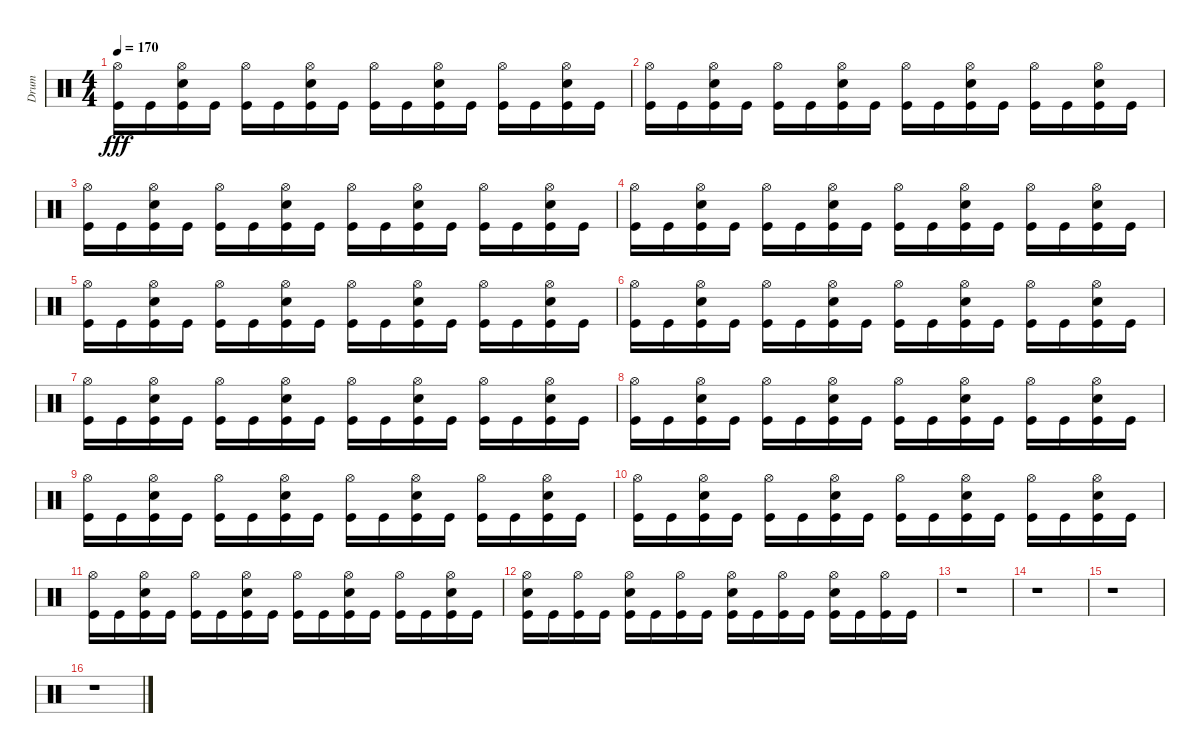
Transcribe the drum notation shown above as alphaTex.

\track ("Drum" "Drum") {instrument percussion}
\staff {score}
\articulation defaults
\ts (4 4)
\tempo 170
\clef neutral
\ks c
("Hi-Hat (open)" "Kick (hit)").16{dy fff} "Kick (hit)".16 ("Hi-Hat (open)" "Snare (hit) 2" "Kick (hit)").16 "Kick (hit)".16 ("Hi-Hat (open)" "Kick (hit)").16 "Kick (hit)".16 ("Hi-Hat (open)" "Snare (hit) 2" "Kick (hit)").16 "Kick (hit)".16 ("Hi-Hat (open)" "Kick (hit)").16 "Kick (hit)".16 ("Hi-Hat (open)" "Snare (hit) 2" "Kick (hit)").16 "Kick (hit)".16 ("Hi-Hat (open)" "Kick (hit)").16 "Kick (hit)".16 ("Hi-Hat (open)" "Snare (hit) 2" "Kick (hit)").16 "Kick (hit)".16 |
("Hi-Hat (open)" "Kick (hit)").16 "Kick (hit)".16 ("Hi-Hat (open)" "Snare (hit) 2" "Kick (hit)").16 "Kick (hit)".16 ("Hi-Hat (open)" "Kick (hit)").16 "Kick (hit)".16 ("Hi-Hat (open)" "Snare (hit) 2" "Kick (hit)").16 "Kick (hit)".16 ("Hi-Hat (open)" "Kick (hit)").16 "Kick (hit)".16 ("Hi-Hat (open)" "Snare (hit) 2" "Kick (hit)").16 "Kick (hit)".16 ("Hi-Hat (open)" "Kick (hit)").16 "Kick (hit)".16 ("Hi-Hat (open)" "Snare (hit) 2" "Kick (hit)").16 "Kick (hit)".16 |
("Hi-Hat (open)" "Kick (hit)").16 "Kick (hit)".16 ("Hi-Hat (open)" "Snare (hit) 2" "Kick (hit)").16 "Kick (hit)".16 ("Hi-Hat (open)" "Kick (hit)").16 "Kick (hit)".16 ("Hi-Hat (open)" "Snare (hit) 2" "Kick (hit)").16 "Kick (hit)".16 ("Hi-Hat (open)" "Kick (hit)").16 "Kick (hit)".16 ("Hi-Hat (open)" "Snare (hit) 2" "Kick (hit)").16 "Kick (hit)".16 ("Hi-Hat (open)" "Kick (hit)").16 "Kick (hit)".16 ("Hi-Hat (open)" "Snare (hit) 2" "Kick (hit)").16 "Kick (hit)".16 |
("Hi-Hat (open)" "Kick (hit)").16 "Kick (hit)".16 ("Hi-Hat (open)" "Snare (hit) 2" "Kick (hit)").16 "Kick (hit)".16 ("Hi-Hat (open)" "Kick (hit)").16 "Kick (hit)".16 ("Hi-Hat (open)" "Snare (hit) 2" "Kick (hit)").16 "Kick (hit)".16 ("Hi-Hat (open)" "Kick (hit)").16 "Kick (hit)".16 ("Hi-Hat (open)" "Snare (hit) 2" "Kick (hit)").16 "Kick (hit)".16 ("Hi-Hat (open)" "Kick (hit)").16 "Kick (hit)".16 ("Hi-Hat (open)" "Snare (hit) 2" "Kick (hit)").16 "Kick (hit)".16 |
("Hi-Hat (open)" "Kick (hit)").16 "Kick (hit)".16 ("Hi-Hat (open)" "Snare (hit) 2" "Kick (hit)").16 "Kick (hit)".16 ("Hi-Hat (open)" "Kick (hit)").16 "Kick (hit)".16 ("Hi-Hat (open)" "Snare (hit) 2" "Kick (hit)").16 "Kick (hit)".16 ("Hi-Hat (open)" "Kick (hit)").16 "Kick (hit)".16 ("Hi-Hat (open)" "Snare (hit) 2" "Kick (hit)").16 "Kick (hit)".16 ("Hi-Hat (open)" "Kick (hit)").16 "Kick (hit)".16 ("Hi-Hat (open)" "Snare (hit) 2" "Kick (hit)").16 "Kick (hit)".16 |
("Hi-Hat (open)" "Kick (hit)").16 "Kick (hit)".16 ("Hi-Hat (open)" "Snare (hit) 2" "Kick (hit)").16 "Kick (hit)".16 ("Hi-Hat (open)" "Kick (hit)").16 "Kick (hit)".16 ("Hi-Hat (open)" "Snare (hit) 2" "Kick (hit)").16 "Kick (hit)".16 ("Hi-Hat (open)" "Kick (hit)").16 "Kick (hit)".16 ("Hi-Hat (open)" "Snare (hit) 2" "Kick (hit)").16 "Kick (hit)".16 ("Hi-Hat (open)" "Kick (hit)").16 "Kick (hit)".16 ("Hi-Hat (open)" "Snare (hit) 2" "Kick (hit)").16 "Kick (hit)".16 |
("Hi-Hat (open)" "Kick (hit)").16 "Kick (hit)".16 ("Hi-Hat (open)" "Snare (hit) 2" "Kick (hit)").16 "Kick (hit)".16 ("Hi-Hat (open)" "Kick (hit)").16 "Kick (hit)".16 ("Hi-Hat (open)" "Snare (hit) 2" "Kick (hit)").16 "Kick (hit)".16 ("Hi-Hat (open)" "Kick (hit)").16 "Kick (hit)".16 ("Hi-Hat (open)" "Snare (hit) 2" "Kick (hit)").16 "Kick (hit)".16 ("Hi-Hat (open)" "Kick (hit)").16 "Kick (hit)".16 ("Hi-Hat (open)" "Snare (hit) 2" "Kick (hit)").16 "Kick (hit)".16 |
("Hi-Hat (open)" "Kick (hit)").16 "Kick (hit)".16 ("Hi-Hat (open)" "Snare (hit) 2" "Kick (hit)").16 "Kick (hit)".16 ("Hi-Hat (open)" "Kick (hit)").16 "Kick (hit)".16 ("Hi-Hat (open)" "Snare (hit) 2" "Kick (hit)").16 "Kick (hit)".16 ("Hi-Hat (open)" "Kick (hit)").16 "Kick (hit)".16 ("Hi-Hat (open)" "Snare (hit) 2" "Kick (hit)").16 "Kick (hit)".16 ("Hi-Hat (open)" "Kick (hit)").16 "Kick (hit)".16 ("Hi-Hat (open)" "Snare (hit) 2" "Kick (hit)").16 "Kick (hit)".16 |
("Hi-Hat (open)" "Kick (hit)").16 "Kick (hit)".16 ("Hi-Hat (open)" "Snare (hit) 2" "Kick (hit)").16 "Kick (hit)".16 ("Hi-Hat (open)" "Kick (hit)").16 "Kick (hit)".16 ("Hi-Hat (open)" "Snare (hit) 2" "Kick (hit)").16 "Kick (hit)".16 ("Hi-Hat (open)" "Kick (hit)").16 "Kick (hit)".16 ("Hi-Hat (open)" "Snare (hit) 2" "Kick (hit)").16 "Kick (hit)".16 ("Hi-Hat (open)" "Kick (hit)").16 "Kick (hit)".16 ("Hi-Hat (open)" "Snare (hit) 2" "Kick (hit)").16 "Kick (hit)".16 |
("Hi-Hat (open)" "Kick (hit)").16 "Kick (hit)".16 ("Hi-Hat (open)" "Snare (hit) 2" "Kick (hit)").16 "Kick (hit)".16 ("Hi-Hat (open)" "Kick (hit)").16 "Kick (hit)".16 ("Hi-Hat (open)" "Snare (hit) 2" "Kick (hit)").16 "Kick (hit)".16 ("Hi-Hat (open)" "Kick (hit)").16 "Kick (hit)".16 ("Hi-Hat (open)" "Snare (hit) 2" "Kick (hit)").16 "Kick (hit)".16 ("Hi-Hat (open)" "Kick (hit)").16 "Kick (hit)".16 ("Hi-Hat (open)" "Snare (hit) 2" "Kick (hit)").16 "Kick (hit)".16 |
("Hi-Hat (open)" "Kick (hit)").16 "Kick (hit)".16 ("Hi-Hat (open)" "Snare (hit) 2" "Kick (hit)").16 "Kick (hit)".16 ("Hi-Hat (open)" "Kick (hit)").16 "Kick (hit)".16 ("Hi-Hat (open)" "Snare (hit) 2" "Kick (hit)").16 "Kick (hit)".16 ("Hi-Hat (open)" "Kick (hit)").16 "Kick (hit)".16 ("Hi-Hat (open)" "Snare (hit) 2" "Kick (hit)").16 "Kick (hit)".16 ("Hi-Hat (open)" "Kick (hit)").16 "Kick (hit)".16 ("Hi-Hat (open)" "Snare (hit) 2" "Kick (hit)").16 "Kick (hit)".16 |
("Hi-Hat (open)" "Snare (hit) 2" "Kick (hit)").16 "Kick (hit)".16 ("Hi-Hat (open)" "Kick (hit)").16 "Kick (hit)".16 ("Hi-Hat (open)" "Snare (hit) 2" "Kick (hit)").16 "Kick (hit)".16 ("Hi-Hat (open)" "Kick (hit)").16 "Kick (hit)".16 ("Hi-Hat (open)" "Snare (hit) 2" "Kick (hit)").16 "Kick (hit)".16 ("Hi-Hat (open)" "Kick (hit)").16 "Kick (hit)".16 ("Hi-Hat (open)" "Snare (hit) 2" "Kick (hit)").16 "Kick (hit)".16 ("Hi-Hat (open)" "Kick (hit)").16 "Kick (hit)".16 |
r.1 |
r.1 |
r.1 |
r.1
